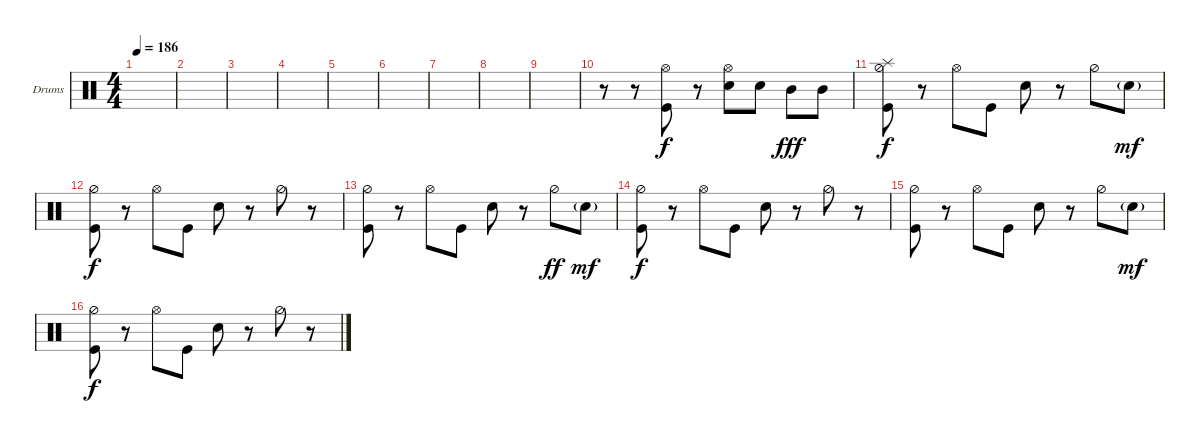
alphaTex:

\defaultSystemsLayout 4
\bracketExtendMode groupsimilarinstruments
\firstSystemTrackNameOrientation horizontal
\otherSystemsTrackNameOrientation horizontal
\track ("Drumkit" "Drums") {instrument percussion}
\staff {score}
\articulation defaults
\ts (4 4)
\tempo 186
\clef neutral
\ks c
|
|
|
|
|
|
|
|
|
r.8 r.8 ("Hi-Hat (open)" "Kick (hit)").8 r.8 ("Snare (hit) 2" "Hi-Hat (open)").8 "Snare (hit) 2".8 "Mid Tom (hit)".8{dy fff} "Mid Tom (hit)".8 |
("Hi-Hat (half)" "Kick (hit)" "Splash (hit)").8{dy f} r.8 "Hi-Hat (open)".8 "Kick (hit)".8 "Snare (hit) 2".8 r.8 "Hi-Hat (half)".8 "Snare (hit) 2"{g}.8{dy mf} |
("Hi-Hat (half)" "Kick (hit)").8{dy f} r.8 "Hi-Hat (open)".8 "Kick (hit)".8 "Snare (hit) 2".8 r.8 "Hi-Hat (half)".8 r.8 |
("Hi-Hat (half)" "Kick (hit)").8 r.8 "Hi-Hat (open)".8 "Kick (hit)".8 "Snare (hit) 2".8 r.8 "Hi-Hat (half)".8{dy ff} "Snare (hit) 2"{g}.8{dy mf} |
("Hi-Hat (half)" "Kick (hit)").8{dy f} r.8 "Hi-Hat (open)".8 "Kick (hit)".8 "Snare (hit) 2".8 r.8 "Hi-Hat (half)".8 r.8 |
("Hi-Hat (half)" "Kick (hit)").8 r.8 "Hi-Hat (open)".8 "Kick (hit)".8 "Snare (hit) 2".8 r.8 "Hi-Hat (half)".8 "Snare (hit) 2"{g}.8{dy mf} |
("Hi-Hat (half)" "Kick (hit)").8{dy f} r.8 "Hi-Hat (open)".8 "Kick (hit)".8 "Snare (hit) 2".8 r.8 "Hi-Hat (half)".8 r.8
